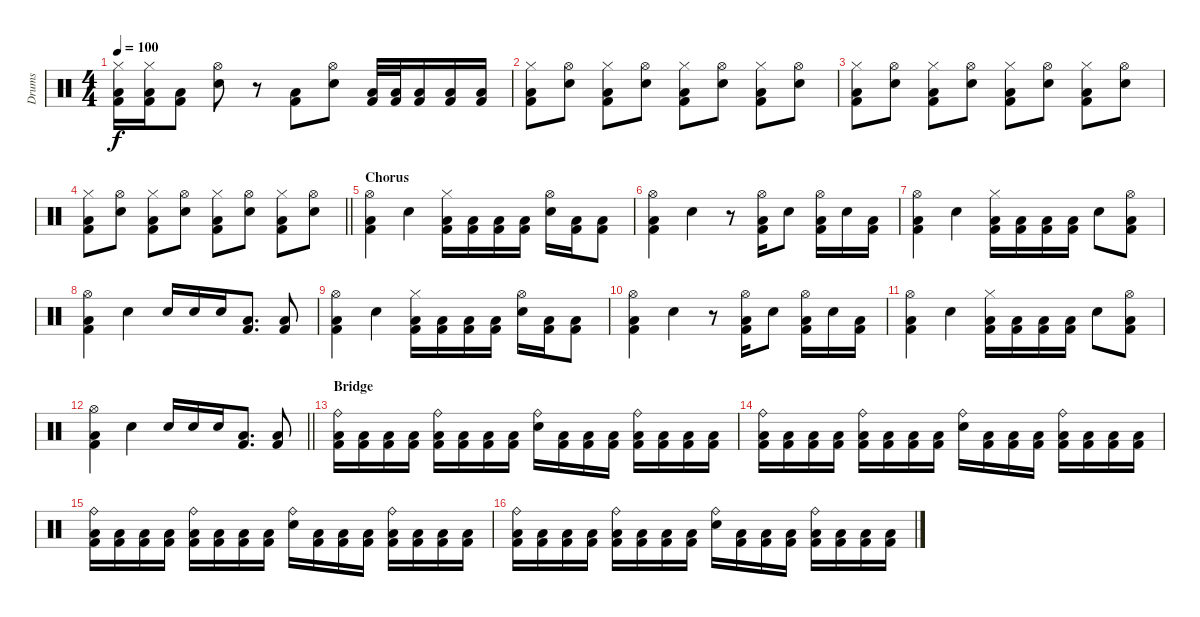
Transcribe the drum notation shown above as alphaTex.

\track ("Drums" "Drums") {instrument percussion}
\staff {score}
\articulation defaults
\ts (4 4)
\tempo 100
\clef neutral
\ks c
("Hi-Hat (closed)" "Low Floor Tom (hit)" "Kick (hit) 2").16{dy f} ("Hi-Hat (closed)" "Low Floor Tom (hit)" "Kick (hit) 2").16 ("Low Floor Tom (hit)" "Kick (hit) 2").8 ("Hi-Hat (open)" "Snare (hit) 2").8 r.8 ("Low Floor Tom (hit)" "Kick (hit) 2").8 ("Hi-Hat (open)" "Snare (hit) 2").8 ("Low Floor Tom (hit)" "Kick (hit) 2").32 ("Low Floor Tom (hit)" "Kick (hit) 2").32 ("Low Floor Tom (hit)" "Kick (hit) 2").16 ("Low Floor Tom (hit)" "Kick (hit) 2").16 ("Low Floor Tom (hit)" "Kick (hit) 2").16 |
("Hi-Hat (closed)" "Low Floor Tom (hit)" "Kick (hit) 2").8 ("Hi-Hat (open)" "Snare (hit) 2").8 ("Hi-Hat (closed)" "Low Floor Tom (hit)" "Kick (hit) 2").8 ("Hi-Hat (open)" "Snare (hit) 2").8 ("Hi-Hat (closed)" "Low Floor Tom (hit)" "Kick (hit) 2").8 ("Hi-Hat (open)" "Snare (hit) 2").8 ("Hi-Hat (closed)" "Low Floor Tom (hit)" "Kick (hit) 2").8 ("Hi-Hat (open)" "Snare (hit) 2").8 |
("Hi-Hat (closed)" "Low Floor Tom (hit)" "Kick (hit) 2").8 ("Hi-Hat (open)" "Snare (hit) 2").8 ("Hi-Hat (closed)" "Low Floor Tom (hit)" "Kick (hit) 2").8 ("Hi-Hat (open)" "Snare (hit) 2").8 ("Hi-Hat (closed)" "Low Floor Tom (hit)" "Kick (hit) 2").8 ("Hi-Hat (open)" "Snare (hit) 2").8 ("Hi-Hat (closed)" "Low Floor Tom (hit)" "Kick (hit) 2").8 ("Hi-Hat (open)" "Snare (hit) 2").8 |
\barLineRight lightlight
("Hi-Hat (closed)" "Low Floor Tom (hit)" "Kick (hit) 2").8 ("Hi-Hat (open)" "Snare (hit) 2").8 ("Hi-Hat (closed)" "Low Floor Tom (hit)" "Kick (hit) 2").8 ("Hi-Hat (open)" "Snare (hit) 2").8 ("Hi-Hat (closed)" "Low Floor Tom (hit)" "Kick (hit) 2").8 ("Hi-Hat (open)" "Snare (hit) 2").8 ("Hi-Hat (closed)" "Low Floor Tom (hit)" "Kick (hit) 2").8 ("Hi-Hat (open)" "Snare (hit) 2").8 |
\section ("" "Chorus")
("Hi-Hat (open)" "Low Floor Tom (hit)" "Kick (hit) 2").4 "Snare (hit) 2".4 ("Hi-Hat (closed)" "Low Floor Tom (hit)" "Kick (hit) 2").16 ("Low Floor Tom (hit)" "Kick (hit) 2").16 ("Low Floor Tom (hit)" "Kick (hit) 2").16 ("Low Floor Tom (hit)" "Kick (hit) 2").16 ("Hi-Hat (open)" "Snare (hit) 2").16 ("Low Floor Tom (hit)" "Kick (hit) 2").16 ("Low Floor Tom (hit)" "Kick (hit) 2").8 |
("Hi-Hat (open)" "Low Floor Tom (hit)" "Kick (hit) 2").4 "Snare (hit) 2".4 r.8 ("Hi-Hat (open)" "Low Floor Tom (hit)" "Kick (hit) 2").16 "Snare (hit) 2".8 ("Hi-Hat (open)" "Low Floor Tom (hit)" "Kick (hit) 2").16 "Snare (hit) 2".16 ("Low Floor Tom (hit)" "Kick (hit) 2").16 |
("Hi-Hat (open)" "Low Floor Tom (hit)" "Kick (hit) 2").4 "Snare (hit) 2".4 ("Hi-Hat (closed)" "Low Floor Tom (hit)" "Kick (hit) 2").16 ("Low Floor Tom (hit)" "Kick (hit) 2").16 ("Low Floor Tom (hit)" "Kick (hit) 2").16 ("Low Floor Tom (hit)" "Kick (hit) 2").16 "Snare (hit) 2".8 ("Hi-Hat (open)" "Low Floor Tom (hit)" "Kick (hit) 2").8 |
("Hi-Hat (open)" "Low Floor Tom (hit)" "Kick (hit) 2").4 "Snare (hit) 2".4 "Snare (hit) 2".16 "Snare (hit) 2".16 "Snare (hit) 2".16 ("Low Floor Tom (hit)" "Kick (hit) 2").8{d} ("Low Tom (hit)" "Kick (hit) 2").8 |
("Hi-Hat (open)" "Low Floor Tom (hit)" "Kick (hit) 2").4 "Snare (hit) 2".4 ("Hi-Hat (closed)" "Low Floor Tom (hit)" "Kick (hit) 2").16 ("Low Floor Tom (hit)" "Kick (hit) 2").16 ("Low Floor Tom (hit)" "Kick (hit) 2").16 ("Low Floor Tom (hit)" "Kick (hit) 2").16 ("Hi-Hat (open)" "Snare (hit) 2").16 ("Low Floor Tom (hit)" "Kick (hit) 2").16 ("Low Floor Tom (hit)" "Kick (hit) 2").8 |
("Hi-Hat (open)" "Low Floor Tom (hit)" "Kick (hit) 2").4 "Snare (hit) 2".4 r.8 ("Hi-Hat (open)" "Low Floor Tom (hit)" "Kick (hit) 2").16 "Snare (hit) 2".8 ("Hi-Hat (open)" "Low Floor Tom (hit)" "Kick (hit) 2").16 "Snare (hit) 2".16 ("Low Floor Tom (hit)" "Kick (hit) 2").16 |
("Hi-Hat (open)" "Low Floor Tom (hit)" "Kick (hit) 2").4 "Snare (hit) 2".4 ("Hi-Hat (closed)" "Low Floor Tom (hit)" "Kick (hit) 2").16 ("Low Floor Tom (hit)" "Kick (hit) 2").16 ("Low Floor Tom (hit)" "Kick (hit) 2").16 ("Low Floor Tom (hit)" "Kick (hit) 2").16 "Snare (hit) 2".8 ("Hi-Hat (open)" "Low Floor Tom (hit)" "Kick (hit) 2").8 |
\barLineRight lightlight
("Hi-Hat (open)" "Low Floor Tom (hit)" "Kick (hit) 2").4 "Snare (hit) 2".4 "Snare (hit) 2".16 "Snare (hit) 2".16 "Snare (hit) 2".16 ("Low Floor Tom (hit)" "Kick (hit) 2").8{d} ("Low Tom (hit)" "Kick (hit) 2").8 |
\section ("" "Bridge")
("Ride (bell)" "Low Floor Tom (hit)" "Kick (hit) 2").16 ("Low Floor Tom (hit)" "Kick (hit) 2").16 ("Low Floor Tom (hit)" "Kick (hit) 2").16 ("Low Floor Tom (hit)" "Kick (hit) 2").16 ("Ride (bell)" "Low Floor Tom (hit)" "Kick (hit) 2").16 ("Low Floor Tom (hit)" "Kick (hit) 2").16 ("Low Floor Tom (hit)" "Kick (hit) 2").16 ("Low Floor Tom (hit)" "Kick (hit) 2").16 ("Ride (bell)" "Snare (hit) 2").16 ("Low Floor Tom (hit)" "Kick (hit) 2").16 ("Low Floor Tom (hit)" "Kick (hit) 2").16 ("Low Floor Tom (hit)" "Kick (hit) 2").16 ("Ride (bell)" "Low Floor Tom (hit)" "Kick (hit) 2").16 ("Low Floor Tom (hit)" "Kick (hit) 2").16 ("Low Floor Tom (hit)" "Kick (hit) 2").16 ("Low Floor Tom (hit)" "Kick (hit) 2").16 |
("Ride (bell)" "Low Floor Tom (hit)" "Kick (hit) 2").16 ("Low Floor Tom (hit)" "Kick (hit) 2").16 ("Low Floor Tom (hit)" "Kick (hit) 2").16 ("Low Floor Tom (hit)" "Kick (hit) 2").16 ("Ride (bell)" "Low Floor Tom (hit)" "Kick (hit) 2").16 ("Low Floor Tom (hit)" "Kick (hit) 2").16 ("Low Floor Tom (hit)" "Kick (hit) 2").16 ("Low Floor Tom (hit)" "Kick (hit) 2").16 ("Ride (bell)" "Snare (hit) 2").16 ("Low Floor Tom (hit)" "Kick (hit) 2").16 ("Low Floor Tom (hit)" "Kick (hit) 2").16 ("Low Floor Tom (hit)" "Kick (hit) 2").16 ("Ride (bell)" "Low Floor Tom (hit)" "Kick (hit) 2").16 ("Low Floor Tom (hit)" "Kick (hit) 2").16 ("Low Floor Tom (hit)" "Kick (hit) 2").16 ("Low Floor Tom (hit)" "Kick (hit) 2").16 |
("Ride (bell)" "Low Floor Tom (hit)" "Kick (hit) 2").16 ("Low Floor Tom (hit)" "Kick (hit) 2").16 ("Low Floor Tom (hit)" "Kick (hit) 2").16 ("Low Floor Tom (hit)" "Kick (hit) 2").16 ("Ride (bell)" "Low Floor Tom (hit)" "Kick (hit) 2").16 ("Low Floor Tom (hit)" "Kick (hit) 2").16 ("Low Floor Tom (hit)" "Kick (hit) 2").16 ("Low Floor Tom (hit)" "Kick (hit) 2").16 ("Ride (bell)" "Snare (hit) 2").16 ("Low Floor Tom (hit)" "Kick (hit) 2").16 ("Low Floor Tom (hit)" "Kick (hit) 2").16 ("Low Floor Tom (hit)" "Kick (hit) 2").16 ("Ride (bell)" "Low Floor Tom (hit)" "Kick (hit) 2").16 ("Low Floor Tom (hit)" "Kick (hit) 2").16 ("Low Floor Tom (hit)" "Kick (hit) 2").16 ("Low Floor Tom (hit)" "Kick (hit) 2").16 |
("Ride (bell)" "Low Floor Tom (hit)" "Kick (hit) 2").16 ("Low Floor Tom (hit)" "Kick (hit) 2").16 ("Low Floor Tom (hit)" "Kick (hit) 2").16 ("Low Floor Tom (hit)" "Kick (hit) 2").16 ("Ride (bell)" "Low Floor Tom (hit)" "Kick (hit) 2").16 ("Low Floor Tom (hit)" "Kick (hit) 2").16 ("Low Floor Tom (hit)" "Kick (hit) 2").16 ("Low Floor Tom (hit)" "Kick (hit) 2").16 ("Ride (bell)" "Snare (hit) 2").16 ("Low Floor Tom (hit)" "Kick (hit) 2").16 ("Low Floor Tom (hit)" "Kick (hit) 2").16 ("Low Floor Tom (hit)" "Kick (hit) 2").16 ("Ride (bell)" "Low Floor Tom (hit)" "Kick (hit) 2").16 ("Low Floor Tom (hit)" "Kick (hit) 2").16 ("Low Floor Tom (hit)" "Kick (hit) 2").16 ("Low Floor Tom (hit)" "Kick (hit) 2").16
